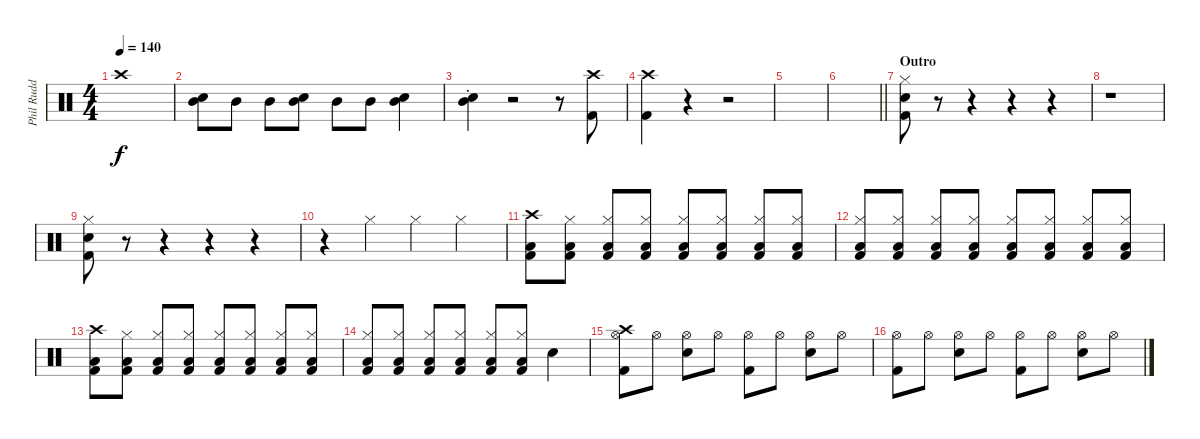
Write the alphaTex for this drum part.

\track ("Phil Rudd" "Phil Rudd") {instrument percussion}
\staff {score}
\articulation defaults
\ts (4 4)
\tempo 140
\clef neutral
\ks c "Crash high (hit)".1{dy f}
|
("Mid Tom (hit)" "Snare (hit) 2").8 "Mid Tom (hit)".8 "Mid Tom (hit)".8 ("Mid Tom (hit)" "Snare (hit) 2").8 "Mid Tom (hit)".8 "Mid Tom (hit)".8 ("Mid Tom (hit)" "Snare (hit) 2").4 |
("Mid Tom (hit)"{st} "Snare (hit) 2"{st}).4 r.2 r.8 ("Crash high (hit)" "Kick (hit) 2").8 |
("Crash high (hit)" "Kick (hit) 2").4 r.4 r.2 |
|
\barLineRight lightlight
|
\section ("" "Outro")
("Snare (hit) 2" "Hi-Hat (closed)" "Kick (hit) 2").8 r.8 r.4 r.4 r.4 |
r.1 |
("Snare (hit) 2" "Hi-Hat (closed)" "Kick (hit) 2").8 r.8 r.4 r.4 r.4 |
r.4 "Hi-Hat (closed)".4 "Hi-Hat (closed)".4 "Hi-Hat (closed)".4 |
("Crash high (hit)" "Kick (hit) 2" "Low Floor Tom (hit)").8 ("Hi-Hat (closed)" "Kick (hit) 2" "Low Floor Tom (hit)").8{volume 10} ("Hi-Hat (closed)" "Kick (hit) 2" "Low Floor Tom (hit)").8 ("Hi-Hat (closed)" "Kick (hit) 2" "Low Floor Tom (hit)").8 ("Hi-Hat (closed)" "Kick (hit) 2" "Low Floor Tom (hit)").8 ("Hi-Hat (closed)" "Kick (hit) 2" "Low Floor Tom (hit)").8 ("Hi-Hat (closed)" "Kick (hit) 2" "Low Floor Tom (hit)").8 ("Hi-Hat (closed)" "Kick (hit) 2" "Low Floor Tom (hit)").8 |
("Hi-Hat (closed)" "Kick (hit) 2" "Low Floor Tom (hit)").8{volume 15} ("Hi-Hat (closed)" "Kick (hit) 2" "Low Floor Tom (hit)").8 ("Hi-Hat (closed)" "Kick (hit) 2" "Low Floor Tom (hit)").8 ("Hi-Hat (closed)" "Kick (hit) 2" "Low Floor Tom (hit)").8 ("Hi-Hat (closed)" "Kick (hit) 2" "Low Floor Tom (hit)").8 ("Hi-Hat (closed)" "Kick (hit) 2" "Low Floor Tom (hit)").8 ("Hi-Hat (closed)" "Kick (hit) 2" "Low Floor Tom (hit)").8 ("Hi-Hat (closed)" "Kick (hit) 2" "Low Floor Tom (hit)").8 |
("Crash high (hit)" "Kick (hit) 2" "Low Floor Tom (hit)").8 ("Hi-Hat (closed)" "Kick (hit) 2" "Low Floor Tom (hit)").8 ("Hi-Hat (closed)" "Kick (hit) 2" "Low Floor Tom (hit)").8 ("Hi-Hat (closed)" "Kick (hit) 2" "Low Floor Tom (hit)").8 ("Hi-Hat (closed)" "Kick (hit) 2" "Low Floor Tom (hit)").8 ("Hi-Hat (closed)" "Kick (hit) 2" "Low Floor Tom (hit)").8 ("Hi-Hat (closed)" "Kick (hit) 2" "Low Floor Tom (hit)").8 ("Hi-Hat (closed)" "Kick (hit) 2" "Low Floor Tom (hit)").8 |
("Hi-Hat (closed)" "Kick (hit) 2" "Low Floor Tom (hit)").8 ("Hi-Hat (closed)" "Kick (hit) 2" "Low Floor Tom (hit)").8 ("Hi-Hat (closed)" "Kick (hit) 2" "Low Floor Tom (hit)").8 ("Hi-Hat (closed)" "Kick (hit) 2" "Low Floor Tom (hit)").8 ("Hi-Hat (closed)" "Kick (hit) 2" "Low Floor Tom (hit)").8 ("Hi-Hat (closed)" "Kick (hit) 2" "Low Floor Tom (hit)").8 "Snare (hit) 2".4 |
("Crash high (hit)" "Hi-Hat (open)" "Kick (hit) 2").8{volume 15} "Hi-Hat (open)".8 ("Hi-Hat (open)" "Snare (hit) 2").8 "Hi-Hat (open)".8 ("Hi-Hat (open)" "Kick (hit) 2").8 "Hi-Hat (open)".8 ("Hi-Hat (open)" "Snare (hit) 2").8 "Hi-Hat (open)".8 |
("Hi-Hat (open)" "Kick (hit) 2").8 "Hi-Hat (open)".8 ("Hi-Hat (open)" "Snare (hit) 2").8 "Hi-Hat (open)".8 ("Hi-Hat (open)" "Kick (hit) 2").8 "Hi-Hat (open)".8 ("Hi-Hat (open)" "Snare (hit) 2").8 "Hi-Hat (open)".8
